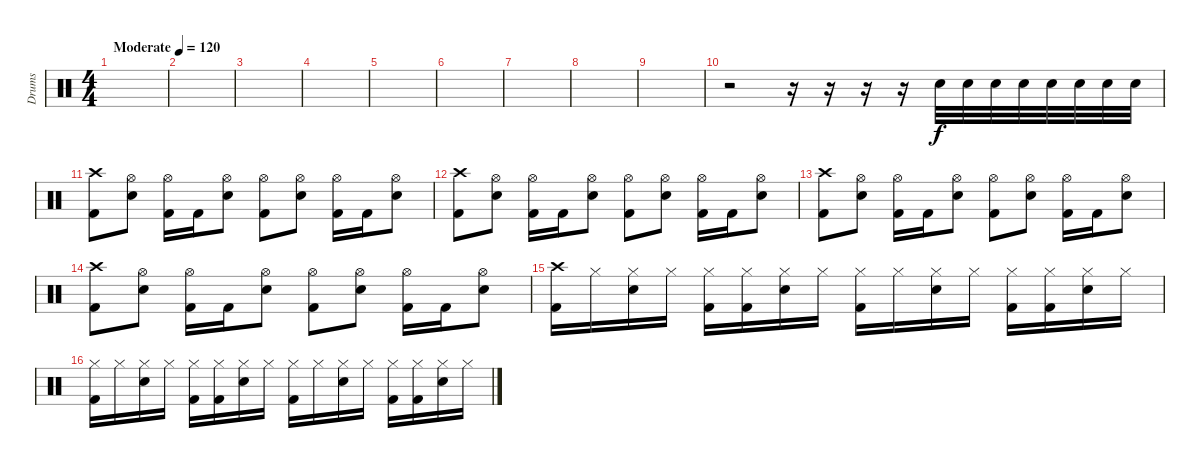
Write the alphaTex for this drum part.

\track ("Drums" "Drums") {instrument percussion}
\staff {score}
\articulation defaults
\ts (4 4)
\tempo (120 "Moderate")
\tempo 90
\tempo (120 "Moderate")
\clef neutral
\ks c
|
|
|
|
|
|
|
|
|
r.2 r.16 r.16 r.16 r.16 "Snare (hit) 2".32 "Snare (hit) 2".32 "Snare (hit) 2".32 "Snare (hit) 2".32 "Snare (hit) 2".32 "Snare (hit) 2".32 "Snare (hit) 2".32 "Snare (hit) 2".32 |
("Crash high (hit)" "Kick (hit) 2").8 ("Hi-Hat (open)" "Snare (hit) 2").8 ("Hi-Hat (open)" "Kick (hit) 2").16 "Kick (hit) 2".16 ("Hi-Hat (open)" "Snare (hit) 2").8 ("Hi-Hat (open)" "Kick (hit) 2").8 ("Hi-Hat (open)" "Snare (hit) 2").8 ("Hi-Hat (open)" "Kick (hit) 2").16 "Kick (hit) 2".16 ("Hi-Hat (open)" "Snare (hit) 2").8 |
("Crash high (hit)" "Kick (hit) 2").8 ("Hi-Hat (open)" "Snare (hit) 2").8 ("Hi-Hat (open)" "Kick (hit) 2").16 "Kick (hit) 2".16 ("Hi-Hat (open)" "Snare (hit) 2").8 ("Hi-Hat (open)" "Kick (hit) 2").8 ("Hi-Hat (open)" "Snare (hit) 2").8 ("Hi-Hat (open)" "Kick (hit) 2").16 "Kick (hit) 2".16 ("Hi-Hat (open)" "Snare (hit) 2").8 |
("Crash high (hit)" "Kick (hit) 2").8 ("Hi-Hat (open)" "Snare (hit) 2").8 ("Hi-Hat (open)" "Kick (hit) 2").16 "Kick (hit) 2".16 ("Hi-Hat (open)" "Snare (hit) 2").8 ("Hi-Hat (open)" "Kick (hit) 2").8 ("Hi-Hat (open)" "Snare (hit) 2").8 ("Hi-Hat (open)" "Kick (hit) 2").16 "Kick (hit) 2".16 ("Hi-Hat (open)" "Snare (hit) 2").8 |
("Crash high (hit)" "Kick (hit) 2").8 ("Hi-Hat (open)" "Snare (hit) 2").8 ("Hi-Hat (open)" "Kick (hit) 2").16 "Kick (hit) 2".16 ("Hi-Hat (open)" "Snare (hit) 2").8 ("Hi-Hat (open)" "Kick (hit) 2").8 ("Hi-Hat (open)" "Snare (hit) 2").8 ("Hi-Hat (open)" "Kick (hit) 2").16 "Kick (hit) 2".16 ("Hi-Hat (open)" "Snare (hit) 2").8 |
("Crash high (hit)" "Kick (hit) 2").16 "Hi-Hat (closed)".16 ("Hi-Hat (closed)" "Snare (hit) 2").16 "Hi-Hat (closed)".16 ("Hi-Hat (closed)" "Kick (hit) 2").16 ("Hi-Hat (closed)" "Kick (hit) 2").16 ("Hi-Hat (closed)" "Snare (hit) 2").16 "Hi-Hat (closed)".16 ("Hi-Hat (closed)" "Kick (hit) 2").16 "Hi-Hat (closed)".16 ("Hi-Hat (closed)" "Snare (hit) 2").16 "Hi-Hat (closed)".16 ("Hi-Hat (closed)" "Kick (hit) 2").16 ("Hi-Hat (closed)" "Kick (hit) 2").16 ("Hi-Hat (closed)" "Snare (hit) 2").16 "Hi-Hat (closed)".16 |
("Hi-Hat (closed)" "Kick (hit) 2").16 "Hi-Hat (closed)".16 ("Hi-Hat (closed)" "Snare (hit) 2").16 "Hi-Hat (closed)".16 ("Hi-Hat (closed)" "Kick (hit) 2").16 ("Hi-Hat (closed)" "Kick (hit) 2").16 ("Hi-Hat (closed)" "Snare (hit) 2").16 "Hi-Hat (closed)".16 ("Hi-Hat (closed)" "Kick (hit) 2").16 "Hi-Hat (closed)".16 ("Hi-Hat (closed)" "Snare (hit) 2").16 "Hi-Hat (closed)".16 ("Hi-Hat (closed)" "Kick (hit) 2").16 ("Hi-Hat (closed)" "Kick (hit) 2").16 ("Hi-Hat (closed)" "Snare (hit) 2").16 "Hi-Hat (closed)".16
